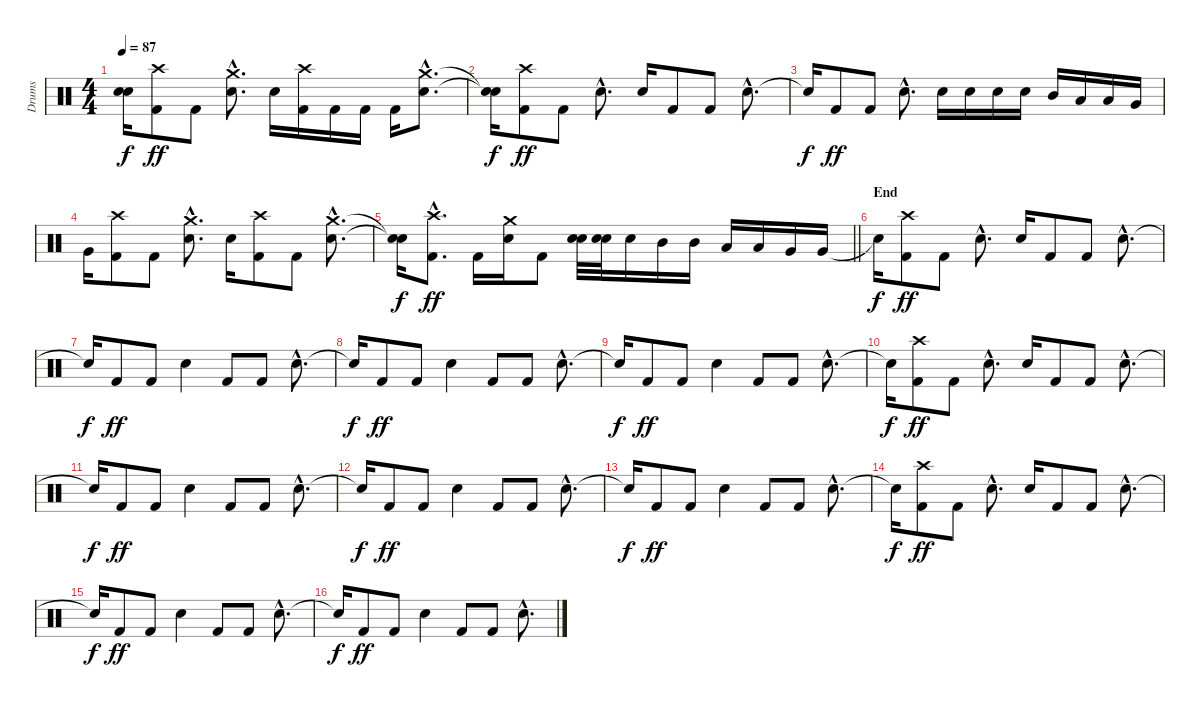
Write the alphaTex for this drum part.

\track ("Drums" "Drums") {instrument percussion}
\staff {score}
\articulation defaults
\ts (4 4)
\tempo 87
\clef neutral
\ks c
("Snare (hit)"{t} "Snare (hit)"{t}).16{dy f} ("Kick (hit) 2" "Crash high (hit)").8{dy ff} "Kick (hit) 2".8 ("Electric Snare (hit)"{hac} "Crash medium (hit)"{hac}).8{d} "Electric Snare (hit)".16 ("Kick (hit) 2" "Crash high (hit)").16 "Kick (hit) 2".16 "Kick (hit) 2".16 "Kick (hit) 2".16 ("Electric Snare (hit)"{hac} "Crash medium (hit)"{hac}).8{d} |
("Snare (hit)"{t} "Snare (hit)"{t}).16{dy f} ("Kick (hit) 2" "Crash high (hit)").8{dy ff} "Kick (hit) 2".8 "Electric Snare (hit)"{hac}.8{d} "Electric Snare (hit)".16 "Kick (hit) 2".8 "Kick (hit) 2".8 "Electric Snare (hit)"{hac}.8{d} |
"Snare (hit)"{t}.16{dy f} "Kick (hit) 2".8{dy ff} "Kick (hit) 2".8 "Electric Snare (hit)"{hac}.8{d} "Electric Snare (hit)".16 "Electric Snare (hit)".16 "Electric Snare (hit)".16 "Electric Snare (hit)".16 "Mid Tom (hit)".16 "Low Tom (hit)".16 "Low Tom (hit)".16 "Very Low Tom (hit)".16 |
"Very Low Tom (hit)".16 ("Kick (hit) 2" "Crash high (hit)").8 "Kick (hit) 2".8 ("Electric Snare (hit)"{hac} "Crash medium (hit)"{hac}).8{d} "Electric Snare (hit)".16 ("Kick (hit) 2" "Crash high (hit)").8 "Kick (hit) 2".8 ("Electric Snare (hit)"{hac} "Crash medium (hit)"{hac}).8{d} |
\barLineRight lightlight
("Snare (hit)"{t} "Snare (hit)"{t}).16{dy f} ("Kick (hit) 2"{hac} "Crash high (hit)"{hac}).8{d dy ff} "Kick (hit) 2".16 ("Electric Snare (hit)" "Crash medium (hit)").16 "Kick (hit) 2".8 ("Electric Snare (hit)" "Electric Snare (hit)").32 ("Electric Snare (hit)" "Electric Snare (hit)").32 "Electric Snare (hit)".16 "Mid Tom (hit)".16 "Mid Tom (hit)".16 "Low Tom (hit)".16 "Low Tom (hit)".16 "Very Low Tom (hit)".16 "Very Low Tom (hit)".16 |
\section ("" "End")
"Snare (hit)"{t}.16{dy f} ("Kick (hit) 2" "Crash high (hit)").8{dy ff} "Kick (hit) 2".8 "Electric Snare (hit)"{hac}.8{d} "Electric Snare (hit)".16 "Kick (hit) 2".8 "Kick (hit) 2".8 "Electric Snare (hit)"{hac}.8{d} |
"Snare (hit)"{t}.16{dy f} "Kick (hit) 2".8{dy ff} "Kick (hit) 2".8 "Electric Snare (hit)".4 "Kick (hit) 2".8 "Kick (hit) 2".8 "Electric Snare (hit)"{hac}.8{d} |
"Snare (hit)"{t}.16{dy f} "Kick (hit) 2".8{dy ff} "Kick (hit) 2".8 "Electric Snare (hit)".4 "Kick (hit) 2".8 "Kick (hit) 2".8 "Electric Snare (hit)"{hac}.8{d} |
"Snare (hit)"{t}.16{dy f} "Kick (hit) 2".8{dy ff} "Kick (hit) 2".8 "Electric Snare (hit)".4 "Kick (hit) 2".8 "Kick (hit) 2".8 "Electric Snare (hit)"{hac}.8{d} |
"Snare (hit)"{t}.16{dy f} ("Kick (hit) 2" "Crash high (hit)").8{dy ff} "Kick (hit) 2".8 "Electric Snare (hit)"{hac}.8{d} "Electric Snare (hit)".16 "Kick (hit) 2".8 "Kick (hit) 2".8 "Electric Snare (hit)"{hac}.8{d} |
"Snare (hit)"{t}.16{dy f} "Kick (hit) 2".8{dy ff} "Kick (hit) 2".8 "Electric Snare (hit)".4 "Kick (hit) 2".8 "Kick (hit) 2".8 "Electric Snare (hit)"{hac}.8{d} |
"Snare (hit)"{t}.16{dy f} "Kick (hit) 2".8{dy ff} "Kick (hit) 2".8 "Electric Snare (hit)".4 "Kick (hit) 2".8 "Kick (hit) 2".8 "Electric Snare (hit)"{hac}.8{d} |
"Snare (hit)"{t}.16{dy f} "Kick (hit) 2".8{dy ff} "Kick (hit) 2".8 "Electric Snare (hit)".4 "Kick (hit) 2".8 "Kick (hit) 2".8 "Electric Snare (hit)"{hac}.8{d} |
"Snare (hit)"{t}.16{dy f} ("Kick (hit) 2" "Crash high (hit)").8{dy ff} "Kick (hit) 2".8 "Electric Snare (hit)"{hac}.8{d} "Electric Snare (hit)".16 "Kick (hit) 2".8 "Kick (hit) 2".8 "Electric Snare (hit)"{hac}.8{d} |
"Snare (hit)"{t}.16{dy f} "Kick (hit) 2".8{dy ff} "Kick (hit) 2".8 "Electric Snare (hit)".4 "Kick (hit) 2".8 "Kick (hit) 2".8 "Electric Snare (hit)"{hac}.8{d} |
"Snare (hit)"{t}.16{dy f} "Kick (hit) 2".8{dy ff} "Kick (hit) 2".8 "Electric Snare (hit)".4 "Kick (hit) 2".8 "Kick (hit) 2".8 "Electric Snare (hit)"{hac}.8{d}
